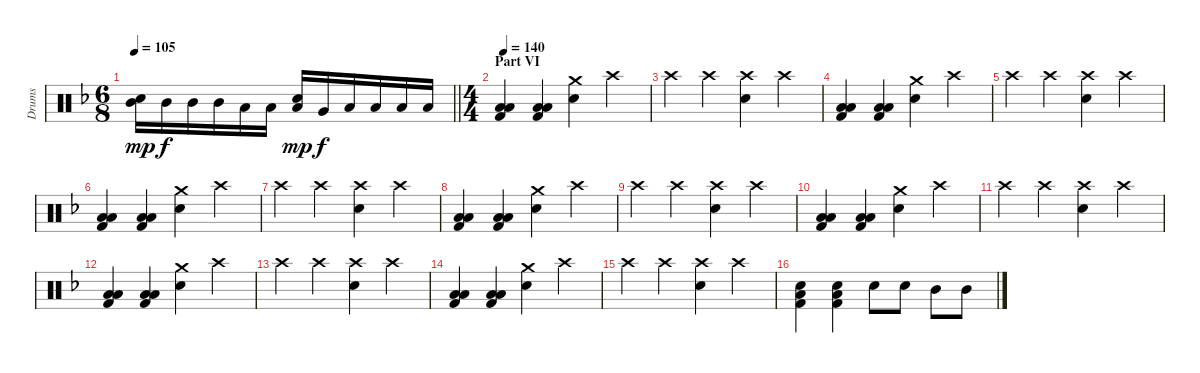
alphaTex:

\track ("Drums" "Drums") {instrument percussion}
\staff {score}
\articulation defaults
\ts (6 8)
\tempo 105
\clef neutral
\barLineRight lightlight
\ks dminor
("Mid Tom (hit)" "Hand Clap (hit)").16{dy mp} "Mid Tom (hit)".16{dy f} "Mid Tom (hit)".16 "Mid Tom (hit)".16 "Low Tom (hit)".16 "Low Tom (hit)".16 ("Low Tom (hit)" "Hand Clap (hit)").16{dy mp} "Very Low Tom (hit)".16{dy f} "Low Floor Tom (hit)".16 "Low Floor Tom (hit)".16 "Low Floor Tom (hit)".16 "Low Floor Tom (hit)".16 |
\ts (4 4)
\section ("" "Part VI")
\tempo 140
("Low Tom (hit)" "Low Floor Tom (hit)" "Kick (hit) 2").4 ("Low Tom (hit)" "Low Floor Tom (hit)" "Kick (hit) 2").4 ("Electric Snare (hit)" "Crash medium (hit)").4 "Crash high (hit)".4 |
"Crash high (hit)".4 "Crash high (hit)".4 ("Crash high (hit)" "Electric Snare (hit)").4 "Crash high (hit)".4 |
("Low Tom (hit)" "Low Floor Tom (hit)" "Kick (hit) 2").4 ("Low Tom (hit)" "Low Floor Tom (hit)" "Kick (hit) 2").4 ("Electric Snare (hit)" "Crash medium (hit)").4 "Crash high (hit)".4 |
"Crash high (hit)".4 "Crash high (hit)".4 ("Crash high (hit)" "Electric Snare (hit)").4 "Crash high (hit)".4 |
("Low Tom (hit)" "Low Floor Tom (hit)" "Kick (hit) 2").4 ("Low Tom (hit)" "Low Floor Tom (hit)" "Kick (hit) 2").4 ("Electric Snare (hit)" "Crash medium (hit)").4 "Crash high (hit)".4 |
"Crash high (hit)".4 "Crash high (hit)".4 ("Crash high (hit)" "Electric Snare (hit)").4 "Crash high (hit)".4 |
("Low Tom (hit)" "Low Floor Tom (hit)" "Kick (hit) 2").4 ("Low Tom (hit)" "Low Floor Tom (hit)" "Kick (hit) 2").4 ("Electric Snare (hit)" "Crash medium (hit)").4 "Crash high (hit)".4 |
"Crash high (hit)".4 "Crash high (hit)".4 ("Crash high (hit)" "Electric Snare (hit)").4 "Crash high (hit)".4 |
("Low Tom (hit)" "Low Floor Tom (hit)" "Kick (hit) 2").4 ("Low Tom (hit)" "Low Floor Tom (hit)" "Kick (hit) 2").4 ("Electric Snare (hit)" "Crash medium (hit)").4 "Crash high (hit)".4 |
"Crash high (hit)".4 "Crash high (hit)".4 ("Crash high (hit)" "Electric Snare (hit)").4 "Crash high (hit)".4 |
("Low Tom (hit)" "Low Floor Tom (hit)" "Kick (hit) 2").4 ("Low Tom (hit)" "Low Floor Tom (hit)" "Kick (hit) 2").4 ("Electric Snare (hit)" "Crash medium (hit)").4 "Crash high (hit)".4 |
"Crash high (hit)".4 "Crash high (hit)".4 ("Crash high (hit)" "Electric Snare (hit)").4 "Crash high (hit)".4 |
("Low Tom (hit)" "Low Floor Tom (hit)" "Kick (hit) 2").4 ("Low Tom (hit)" "Low Floor Tom (hit)" "Kick (hit) 2").4 ("Electric Snare (hit)" "Crash medium (hit)").4 "Crash high (hit)".4 |
"Crash high (hit)".4 "Crash high (hit)".4 ("Crash high (hit)" "Electric Snare (hit)").4 "Crash high (hit)".4 |
("Electric Snare (hit)" "Low Floor Tom (hit)" "Kick (hit) 2").4 ("Electric Snare (hit)" "Low Floor Tom (hit)" "Kick (hit) 2").4 "Electric Snare (hit)".8 "Electric Snare (hit)".8 "Mid Tom (hit)".8 "Mid Tom (hit)".8
